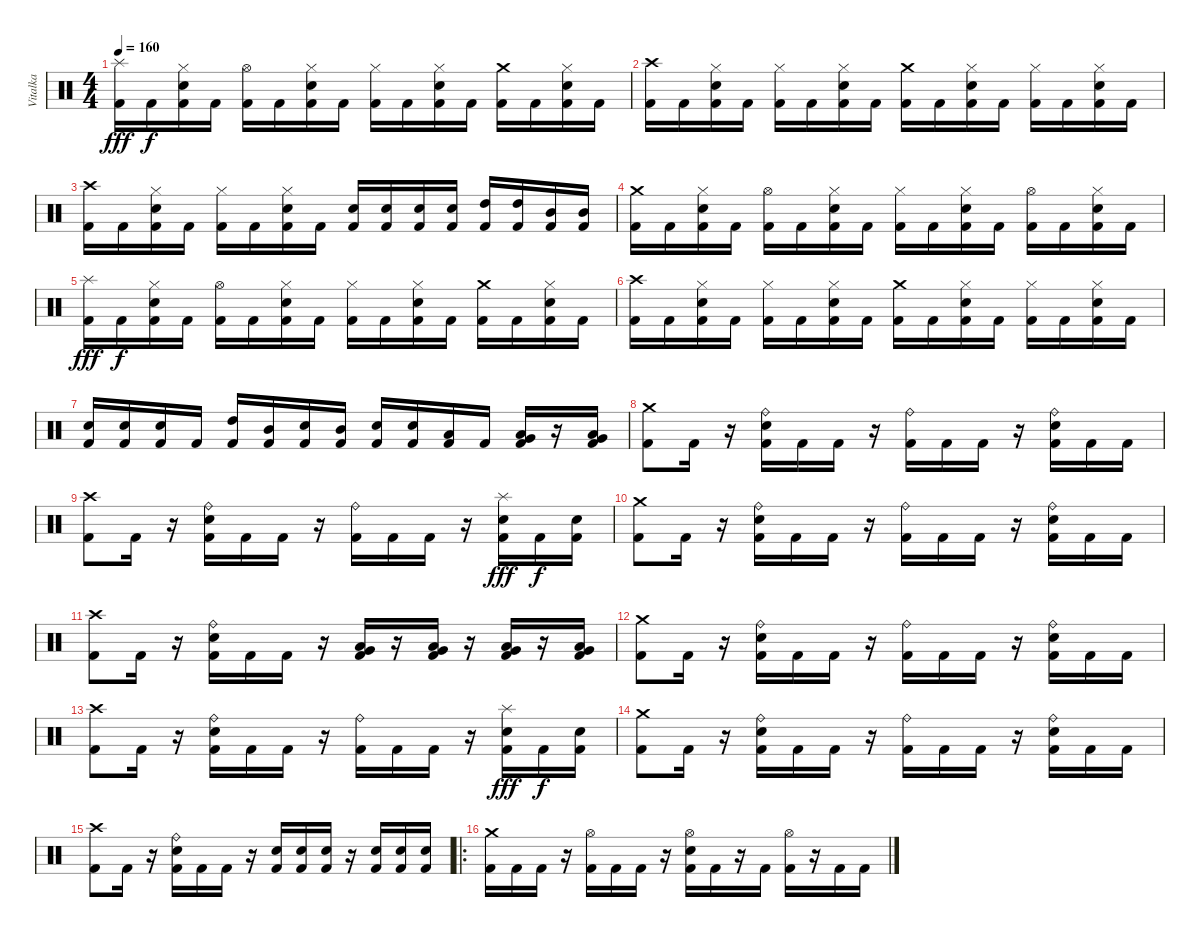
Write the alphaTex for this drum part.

\track ("Vitalka" "Vitalka") {instrument percussion}
\staff {score}
\articulation defaults
\ts (4 4)
\tempo 160
\clef neutral
\ks c
("Splash (hit)" "Kick (hit) 2").16{dy fff} "Kick (hit) 2".16{dy f} ("Hi-Hat (closed)" "Snare (hit) 2" "Kick (hit) 2").16 "Kick (hit) 2".16 ("Hi-Hat (open)" "Kick (hit) 2").16 "Kick (hit) 2".16 ("Hi-Hat (closed)" "Snare (hit) 2" "Kick (hit) 2").16 "Kick (hit) 2".16 ("Hi-Hat (closed)" "Kick (hit) 2").16 "Kick (hit) 2".16 ("Hi-Hat (closed)" "Snare (hit) 2" "Kick (hit) 2").16 "Kick (hit) 2".16 ("Crash medium (hit)" "Kick (hit) 2").16 "Kick (hit) 2".16 ("Hi-Hat (closed)" "Snare (hit) 2" "Kick (hit) 2").16 "Kick (hit) 2".16 |
("Crash high (hit)" "Kick (hit) 2").16 "Kick (hit) 2".16 ("Hi-Hat (closed)" "Snare (hit) 2" "Kick (hit) 2").16 "Kick (hit) 2".16 ("Hi-Hat (closed)" "Kick (hit) 2").16 "Kick (hit) 2".16 ("Hi-Hat (closed)" "Snare (hit) 2" "Kick (hit) 2").16 "Kick (hit) 2".16 ("Crash medium (hit)" "Kick (hit) 2").16 "Kick (hit) 2".16 ("Hi-Hat (closed)" "Snare (hit) 2" "Kick (hit) 2").16 "Kick (hit) 2".16 ("Hi-Hat (closed)" "Kick (hit) 2").16 "Kick (hit) 2".16 ("Hi-Hat (closed)" "Snare (hit) 2" "Kick (hit) 2").16 "Kick (hit) 2".16 |
("Crash high (hit)" "Kick (hit) 2").16 "Kick (hit) 2".16 ("Hi-Hat (closed)" "Snare (hit) 2" "Kick (hit) 2").16 "Kick (hit) 2".16 ("Hi-Hat (closed)" "Kick (hit) 2").16 "Kick (hit) 2".16 ("Hi-Hat (closed)" "Snare (hit) 2" "Kick (hit) 2").16 "Kick (hit) 2".16 ("Snare (hit) 2" "Kick (hit) 2").16 ("Snare (hit) 2" "Kick (hit) 2").16 ("Snare (hit) 2" "Kick (hit) 2").16 ("Snare (hit) 2" "Kick (hit) 2").16 ("High Tom (hit)" "Kick (hit) 2").16 ("High Tom (hit)" "Kick (hit) 2").16 ("Mid Tom (hit)" "Kick (hit) 2").16 ("Mid Tom (hit)" "Kick (hit) 2").16 |
("Crash medium (hit)" "Kick (hit) 2").16 "Kick (hit) 2".16 ("Hi-Hat (closed)" "Snare (hit) 2" "Kick (hit) 2").16 "Kick (hit) 2".16 ("Hi-Hat (open)" "Kick (hit) 2").16 "Kick (hit) 2".16 ("Hi-Hat (closed)" "Snare (hit) 2" "Kick (hit) 2").16 "Kick (hit) 2".16 ("Hi-Hat (closed)" "Kick (hit) 2").16 "Kick (hit) 2".16 ("Hi-Hat (closed)" "Snare (hit) 2" "Kick (hit) 2").16 "Kick (hit) 2".16 ("Hi-Hat (open)" "Kick (hit) 2").16 "Kick (hit) 2".16 ("Hi-Hat (closed)" "Snare (hit) 2" "Kick (hit) 2").16 "Kick (hit) 2".16 |
("Splash (hit)" "Kick (hit) 2").16{dy fff} "Kick (hit) 2".16{dy f} ("Hi-Hat (closed)" "Snare (hit) 2" "Kick (hit) 2").16 "Kick (hit) 2".16 ("Hi-Hat (open)" "Kick (hit) 2").16 "Kick (hit) 2".16 ("Hi-Hat (closed)" "Snare (hit) 2" "Kick (hit) 2").16 "Kick (hit) 2".16 ("Hi-Hat (closed)" "Kick (hit) 2").16 "Kick (hit) 2".16 ("Hi-Hat (closed)" "Snare (hit) 2" "Kick (hit) 2").16 "Kick (hit) 2".16 ("Crash medium (hit)" "Kick (hit) 2").16 "Kick (hit) 2".16 ("Hi-Hat (closed)" "Snare (hit) 2" "Kick (hit) 2").16 "Kick (hit) 2".16 |
("Crash high (hit)" "Kick (hit) 2").16 "Kick (hit) 2".16 ("Hi-Hat (closed)" "Snare (hit) 2" "Kick (hit) 2").16 "Kick (hit) 2".16 ("Hi-Hat (closed)" "Kick (hit) 2").16 "Kick (hit) 2".16 ("Hi-Hat (closed)" "Snare (hit) 2" "Kick (hit) 2").16 "Kick (hit) 2".16 ("Crash medium (hit)" "Kick (hit) 2").16 "Kick (hit) 2".16 ("Hi-Hat (closed)" "Snare (hit) 2" "Kick (hit) 2").16 "Kick (hit) 2".16 ("Hi-Hat (closed)" "Kick (hit) 2").16 "Kick (hit) 2".16 ("Hi-Hat (closed)" "Snare (hit) 2" "Kick (hit) 2").16 "Kick (hit) 2".16 |
("Snare (hit) 2" "Kick (hit) 2").16 ("Snare (hit) 2" "Kick (hit) 2").16 ("Snare (hit) 2" "Kick (hit) 2").16 "Kick (hit) 2".16 ("High Tom (hit)" "Kick (hit) 2").16 ("Mid Tom (hit)" "Kick (hit) 2").16 ("Snare (hit) 2" "Kick (hit) 2").16 ("Mid Tom (hit)" "Kick (hit) 2").16 ("Snare (hit) 2" "Kick (hit) 2").16 ("Snare (hit) 2" "Kick (hit) 2").16 ("Low Tom (hit)" "Kick (hit) 2").16 "Kick (hit) 2".16 ("Low Floor Tom (hit)" "Very Low Tom (hit)" "Kick (hit) 2").16 r.16 ("Low Floor Tom (hit)" "Very Low Tom (hit)" "Kick (hit) 2").16 |
("Crash medium (hit)" "Kick (hit) 2").8 "Kick (hit) 2".16 r.16 ("Ride (bell)" "Snare (hit) 2" "Kick (hit) 2").16 "Kick (hit) 2".16 "Kick (hit) 2".16 r.16 ("Ride (bell)" "Kick (hit) 2").16 "Kick (hit) 2".16 "Kick (hit) 2".16 r.16 ("Ride (bell)" "Snare (hit) 2" "Kick (hit) 2").16 "Kick (hit) 2".16 "Kick (hit) 2".16 |
("Crash high (hit)" "Kick (hit) 2").8 "Kick (hit) 2".16 r.16 ("Ride (bell)" "Snare (hit) 2" "Kick (hit) 2").16 "Kick (hit) 2".16 "Kick (hit) 2".16 r.16 ("Ride (bell)" "Kick (hit) 2").16 "Kick (hit) 2".16 "Kick (hit) 2".16 r.16 ("Splash (hit)" "Snare (hit) 2" "Kick (hit) 2").16{dy fff} "Kick (hit) 2".16{dy f} ("Snare (hit) 2" "Kick (hit) 2").16 |
("Crash medium (hit)" "Kick (hit) 2").8 "Kick (hit) 2".16 r.16 ("Ride (bell)" "Snare (hit) 2" "Kick (hit) 2").16 "Kick (hit) 2".16 "Kick (hit) 2".16 r.16 ("Ride (bell)" "Kick (hit) 2").16 "Kick (hit) 2".16 "Kick (hit) 2".16 r.16 ("Ride (bell)" "Snare (hit) 2" "Kick (hit) 2").16 "Kick (hit) 2".16 "Kick (hit) 2".16 |
("Crash high (hit)" "Kick (hit) 2").8 "Kick (hit) 2".16 r.16 ("Ride (bell)" "Snare (hit) 2" "Kick (hit) 2").16 "Kick (hit) 2".16 "Kick (hit) 2".16 r.16 ("Low Tom (hit)" "Very Low Tom (hit)" "Kick (hit) 2").16 r.16 ("Low Tom (hit)" "Very Low Tom (hit)" "Kick (hit) 2").16 r.16 ("Very Low Tom (hit)" "Low Floor Tom (hit)" "Kick (hit) 2").16 r.16 ("Very Low Tom (hit)" "Low Floor Tom (hit)" "Kick (hit) 2").16 |
("Crash medium (hit)" "Kick (hit) 2").8 "Kick (hit) 2".16 r.16 ("Ride (bell)" "Snare (hit) 2" "Kick (hit) 2").16 "Kick (hit) 2".16 "Kick (hit) 2".16 r.16 ("Ride (bell)" "Kick (hit) 2").16 "Kick (hit) 2".16 "Kick (hit) 2".16 r.16 ("Ride (bell)" "Snare (hit) 2" "Kick (hit) 2").16 "Kick (hit) 2".16 "Kick (hit) 2".16 |
("Crash high (hit)" "Kick (hit) 2").8 "Kick (hit) 2".16 r.16 ("Ride (bell)" "Snare (hit) 2" "Kick (hit) 2").16 "Kick (hit) 2".16 "Kick (hit) 2".16 r.16 ("Ride (bell)" "Kick (hit) 2").16 "Kick (hit) 2".16 "Kick (hit) 2".16 r.16 ("Splash (hit)" "Snare (hit) 2" "Kick (hit) 2").16{dy fff} "Kick (hit) 2".16{dy f} ("Snare (hit) 2" "Kick (hit) 2").16 |
("Crash medium (hit)" "Kick (hit) 2").8 "Kick (hit) 2".16 r.16 ("Ride (bell)" "Snare (hit) 2" "Kick (hit) 2").16 "Kick (hit) 2".16 "Kick (hit) 2".16 r.16 ("Ride (bell)" "Kick (hit) 2").16 "Kick (hit) 2".16 "Kick (hit) 2".16 r.16 ("Ride (bell)" "Snare (hit) 2" "Kick (hit) 2").16 "Kick (hit) 2".16 "Kick (hit) 2".16 |
("Crash high (hit)" "Kick (hit) 2").8 "Kick (hit) 2".16 r.16 ("Ride (bell)" "Snare (hit) 2" "Kick (hit) 2").16 "Kick (hit) 2".16 "Kick (hit) 2".16 r.16 ("Snare (hit) 2" "Kick (hit) 2").16 ("Snare (hit) 2" "Kick (hit) 2").16 ("Snare (hit) 2" "Kick (hit) 2").16 r.16 ("Snare (hit) 2" "Kick (hit) 2").16 ("Snare (hit) 2" "Kick (hit) 2").16 ("Snare (hit) 2" "Kick (hit) 2").16 |
\ro
("Crash medium (hit)" "Kick (hit) 2").16 "Kick (hit) 2".16 "Kick (hit) 2".16 r.16 ("Hi-Hat (open)" "Kick (hit) 2").16 "Kick (hit) 2".16 "Kick (hit) 2".16 r.16 ("Hi-Hat (open)" "Snare (hit) 2" "Kick (hit) 2").16 "Kick (hit) 2".16 r.16 "Kick (hit) 2".16 ("Hi-Hat (open)" "Kick (hit) 2").16 r.16 "Kick (hit) 2".16 "Kick (hit) 2".16
